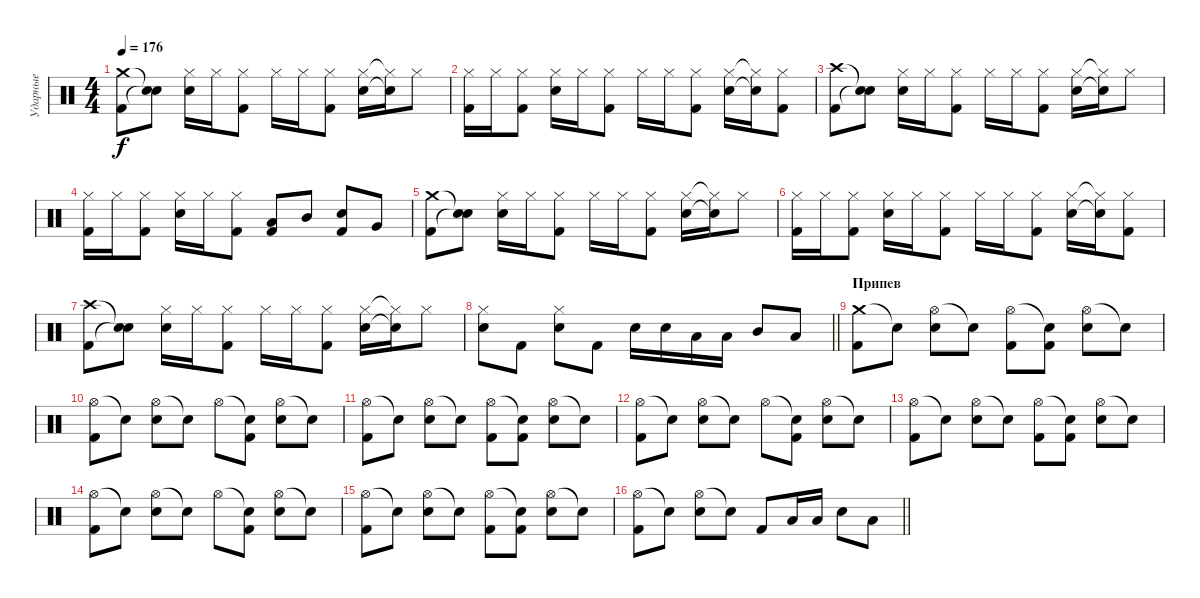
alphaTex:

\track ("Ударные" "Ударные") {instrument percussion}
\staff {score}
\articulation defaults
\ts (4 4)
\tempo 176
\clef neutral
\ks c
("Crash medium (hit)" "Kick (hit) 2").8{dy f} ("Snare (hit)"{t} "Snare (hit)"{t}).8 ("Hi-Hat (closed)" "Snare (hit) 2").16 "Hi-Hat (closed)".16 ("Hi-Hat (closed)" "Kick (hit) 2").8 "Hi-Hat (closed)".16 "Hi-Hat (closed)".16 ("Hi-Hat (closed)" "Kick (hit) 2").8 ("Hi-Hat (closed)" "Snare (hit) 2").16 ("Hi-Hat (closed)"{t} "Snare (hit)"{t}).16 "Hi-Hat (closed)".8 |
("Hi-Hat (closed)" "Kick (hit) 2").16 "Hi-Hat (closed)".16 ("Hi-Hat (closed)" "Kick (hit) 2").8 ("Hi-Hat (closed)" "Snare (hit) 2").16 "Hi-Hat (closed)".16 ("Hi-Hat (closed)" "Kick (hit) 2").8 "Hi-Hat (closed)".16 "Hi-Hat (closed)".16 ("Hi-Hat (closed)" "Kick (hit) 2").8 ("Hi-Hat (closed)" "Snare (hit) 2").16 ("Hi-Hat (closed)"{t} "Snare (hit)"{t}).16 ("Hi-Hat (closed)" "Kick (hit) 2").8 |
("Crash high (hit)" "Kick (hit) 2").8 ("Snare (hit)"{t} "Snare (hit)"{t}).8 ("Hi-Hat (closed)" "Snare (hit) 2").16 "Hi-Hat (closed)".16 ("Hi-Hat (closed)" "Kick (hit) 2").8 "Hi-Hat (closed)".16 "Hi-Hat (closed)".16 ("Hi-Hat (closed)" "Kick (hit) 2").8 ("Hi-Hat (closed)" "Snare (hit) 2").16 ("Hi-Hat (closed)"{t} "Snare (hit)"{t}).16 "Hi-Hat (closed)".8 |
("Hi-Hat (closed)" "Kick (hit) 2").16 "Hi-Hat (closed)".16 ("Hi-Hat (closed)" "Kick (hit) 2").8 ("Hi-Hat (closed)" "Snare (hit) 2").16 "Hi-Hat (closed)".16 ("Hi-Hat (closed)" "Kick (hit) 2").8 ("Low Floor Tom (hit)" "Kick (hit) 2").8 "Mid Tom (hit)".8 ("Snare (hit) 2" "Kick (hit) 2").8 "Very Low Tom (hit)".8 |
("Crash medium (hit)" "Kick (hit) 2").8 ("Snare (hit)"{t} "Snare (hit)"{t}).8 ("Hi-Hat (closed)" "Snare (hit) 2").16 "Hi-Hat (closed)".16 ("Hi-Hat (closed)" "Kick (hit) 2").8 "Hi-Hat (closed)".16 "Hi-Hat (closed)".16 ("Hi-Hat (closed)" "Kick (hit) 2").8 ("Hi-Hat (closed)" "Snare (hit) 2").16 ("Hi-Hat (closed)"{t} "Snare (hit)"{t}).16 "Hi-Hat (closed)".8 |
("Hi-Hat (closed)" "Kick (hit) 2").16 "Hi-Hat (closed)".16 ("Hi-Hat (closed)" "Kick (hit) 2").8 ("Hi-Hat (closed)" "Snare (hit) 2").16 "Hi-Hat (closed)".16 ("Hi-Hat (closed)" "Kick (hit) 2").8 "Hi-Hat (closed)".16 "Hi-Hat (closed)".16 ("Hi-Hat (closed)" "Kick (hit) 2").8 ("Hi-Hat (closed)" "Snare (hit) 2").16 ("Hi-Hat (closed)"{t} "Snare (hit)"{t}).16 ("Hi-Hat (closed)" "Kick (hit) 2").8 |
("Crash high (hit)" "Kick (hit) 2").8 ("Snare (hit)"{t} "Snare (hit)"{t}).8 ("Hi-Hat (closed)" "Snare (hit) 2").16 "Hi-Hat (closed)".16 ("Hi-Hat (closed)" "Kick (hit) 2").8 "Hi-Hat (closed)".16 "Hi-Hat (closed)".16 ("Hi-Hat (closed)" "Kick (hit) 2").8 ("Hi-Hat (closed)" "Snare (hit) 2").16 ("Hi-Hat (closed)"{t} "Snare (hit)"{t}).16 "Hi-Hat (closed)".8 |
\barLineRight lightlight
("Hi-Hat (closed)" "Snare (hit) 2").8 "Kick (hit) 2".8 ("Hi-Hat (closed)" "Snare (hit) 2").8 "Kick (hit) 2".8 "Snare (hit) 2".16 "Snare (hit) 2".16 "Low Tom (hit)".16 "Low Tom (hit)".16 "Mid Tom (hit)".8 "Low Floor Tom (hit)".8 |
\section ("" "Припев")
("Crash medium (hit)" "Kick (hit) 2").8 "Snare (hit)"{t}.8 ("Hi-Hat (open)" "Snare (hit) 2").8 "Snare (hit)"{t}.8 ("Hi-Hat (open)" "Kick (hit) 2").8 ("Snare (hit)"{t} "Kick (hit) 2").8 ("Hi-Hat (open)" "Snare (hit) 2").8 "Snare (hit)"{t}.8 |
("Hi-Hat (open)" "Kick (hit) 2").8 "Snare (hit)"{t}.8 ("Hi-Hat (open)" "Snare (hit) 2").8 "Snare (hit)"{t}.8 "Hi-Hat (open)".8 ("Snare (hit)"{t} "Kick (hit) 2").8 ("Hi-Hat (open)" "Snare (hit) 2").8 "Snare (hit)"{t}.8 |
("Hi-Hat (open)" "Kick (hit) 2").8 "Snare (hit)"{t}.8 ("Hi-Hat (open)" "Snare (hit) 2").8 "Snare (hit)"{t}.8 ("Hi-Hat (open)" "Kick (hit) 2").8 ("Snare (hit)"{t} "Kick (hit) 2").8 ("Hi-Hat (open)" "Snare (hit) 2").8 "Snare (hit)"{t}.8 |
("Hi-Hat (open)" "Kick (hit) 2").8 "Snare (hit)"{t}.8 ("Hi-Hat (open)" "Snare (hit) 2").8 "Snare (hit)"{t}.8 "Hi-Hat (open)".8 ("Snare (hit)"{t} "Kick (hit) 2").8 ("Hi-Hat (open)" "Snare (hit) 2").8 "Snare (hit)"{t}.8 |
("Hi-Hat (open)" "Kick (hit) 2").8 "Snare (hit)"{t}.8 ("Hi-Hat (open)" "Snare (hit) 2").8 "Snare (hit)"{t}.8 ("Hi-Hat (open)" "Kick (hit) 2").8 ("Snare (hit)"{t} "Kick (hit) 2").8 ("Hi-Hat (open)" "Snare (hit) 2").8 "Snare (hit)"{t}.8 |
("Hi-Hat (open)" "Kick (hit) 2").8 "Snare (hit)"{t}.8 ("Hi-Hat (open)" "Snare (hit) 2").8 "Snare (hit)"{t}.8 "Hi-Hat (open)".8 ("Snare (hit)"{t} "Kick (hit) 2").8 ("Hi-Hat (open)" "Snare (hit) 2").8 "Snare (hit)"{t}.8 |
("Hi-Hat (open)" "Kick (hit) 2").8 "Snare (hit)"{t}.8 ("Hi-Hat (open)" "Snare (hit) 2").8 "Snare (hit)"{t}.8 ("Hi-Hat (open)" "Kick (hit) 2").8 ("Snare (hit)"{t} "Kick (hit) 2").8 ("Hi-Hat (open)" "Snare (hit) 2").8 "Snare (hit)"{t}.8 |
\barLineRight lightlight
("Hi-Hat (open)" "Kick (hit) 2").8 "Snare (hit)"{t}.8 ("Hi-Hat (open)" "Snare (hit) 2").8 "Snare (hit)"{t}.8 "Kick (hit) 2".8 "Low Tom (hit)".16 "Low Tom (hit)".16 "Snare (hit) 2".8 "Low Floor Tom (hit)".8
